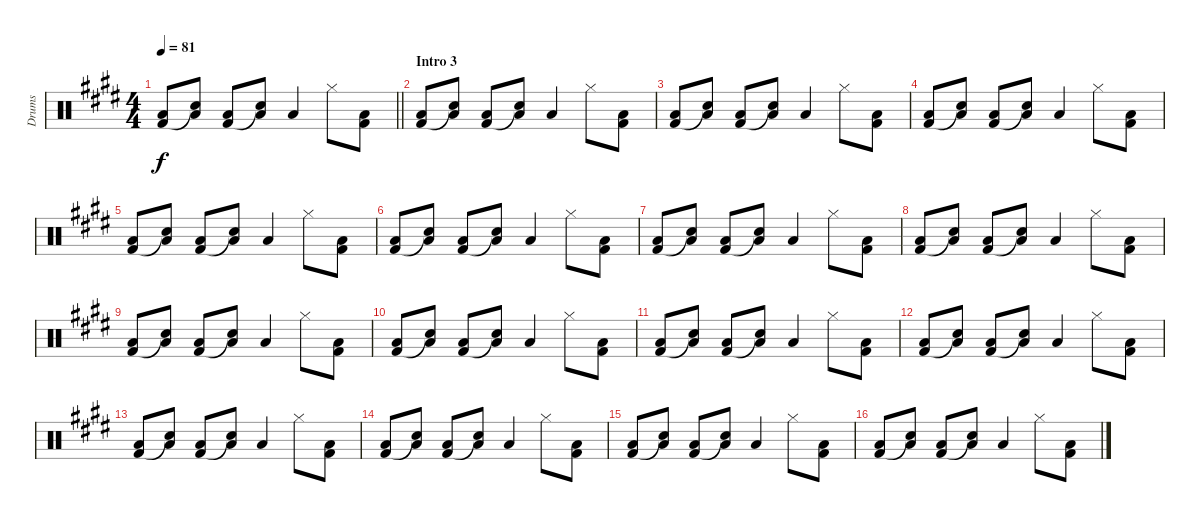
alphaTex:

\track ("Drums" "Drums") {instrument percussion}
\staff {score}
\articulation defaults
\ts (4 4)
\tempo 81
\clef neutral
\barLineRight lightlight
\ks c#minor
("Low Floor Tom (hit)" "Kick (hit) 2").8{dy f} ("Low Floor Tom (hit)" "Snare (hit)"{t}).8 ("Low Floor Tom (hit)" "Kick (hit) 2").8 ("Low Floor Tom (hit)" "Snare (hit)"{t}).8 "Low Tom (hit)".4 "Hi-Hat (closed)".8 ("Low Floor Tom (hit)" "Kick (hit) 2").8 |
\section ("" "Intro 3")
("Low Floor Tom (hit)" "Kick (hit) 2").8 ("Low Floor Tom (hit)" "Snare (hit)"{t}).8 ("Low Floor Tom (hit)" "Kick (hit) 2").8 ("Low Floor Tom (hit)" "Snare (hit)"{t}).8 "Low Tom (hit)".4 "Hi-Hat (closed)".8 ("Low Floor Tom (hit)" "Kick (hit) 2").8 |
("Low Floor Tom (hit)" "Kick (hit) 2").8 ("Low Floor Tom (hit)" "Snare (hit)"{t}).8 ("Low Floor Tom (hit)" "Kick (hit) 2").8 ("Low Floor Tom (hit)" "Snare (hit)"{t}).8 "Low Tom (hit)".4 "Hi-Hat (closed)".8 ("Low Floor Tom (hit)" "Kick (hit) 2").8 |
("Low Floor Tom (hit)" "Kick (hit) 2").8 ("Low Floor Tom (hit)" "Snare (hit)"{t}).8 ("Low Floor Tom (hit)" "Kick (hit) 2").8 ("Low Floor Tom (hit)" "Snare (hit)"{t}).8 "Low Tom (hit)".4 "Hi-Hat (closed)".8 ("Low Floor Tom (hit)" "Kick (hit) 2").8 |
("Low Floor Tom (hit)" "Kick (hit) 2").8 ("Low Floor Tom (hit)" "Snare (hit)"{t}).8 ("Low Floor Tom (hit)" "Kick (hit) 2").8 ("Low Floor Tom (hit)" "Snare (hit)"{t}).8 "Low Tom (hit)".4 "Hi-Hat (closed)".8 ("Low Floor Tom (hit)" "Kick (hit) 2").8 |
("Low Floor Tom (hit)" "Kick (hit) 2").8 ("Low Floor Tom (hit)" "Snare (hit)"{t}).8 ("Low Floor Tom (hit)" "Kick (hit) 2").8 ("Low Floor Tom (hit)" "Snare (hit)"{t}).8 "Low Tom (hit)".4 "Hi-Hat (closed)".8 ("Low Floor Tom (hit)" "Kick (hit) 2").8 |
("Low Floor Tom (hit)" "Kick (hit) 2").8 ("Low Floor Tom (hit)" "Snare (hit)"{t}).8 ("Low Floor Tom (hit)" "Kick (hit) 2").8 ("Low Floor Tom (hit)" "Snare (hit)"{t}).8 "Low Tom (hit)".4 "Hi-Hat (closed)".8 ("Low Floor Tom (hit)" "Kick (hit) 2").8 |
("Low Floor Tom (hit)" "Kick (hit) 2").8 ("Low Floor Tom (hit)" "Snare (hit)"{t}).8 ("Low Floor Tom (hit)" "Kick (hit) 2").8 ("Low Floor Tom (hit)" "Snare (hit)"{t}).8 "Low Tom (hit)".4 "Hi-Hat (closed)".8 ("Low Floor Tom (hit)" "Kick (hit) 2").8 |
("Low Floor Tom (hit)" "Kick (hit) 2").8 ("Low Floor Tom (hit)" "Snare (hit)"{t}).8 ("Low Floor Tom (hit)" "Kick (hit) 2").8 ("Low Floor Tom (hit)" "Snare (hit)"{t}).8 "Low Tom (hit)".4 "Hi-Hat (closed)".8 ("Low Floor Tom (hit)" "Kick (hit) 2").8 |
("Low Floor Tom (hit)" "Kick (hit) 2").8 ("Low Floor Tom (hit)" "Snare (hit)"{t}).8 ("Low Floor Tom (hit)" "Kick (hit) 2").8 ("Low Floor Tom (hit)" "Snare (hit)"{t}).8 "Low Tom (hit)".4 "Hi-Hat (closed)".8 ("Low Floor Tom (hit)" "Kick (hit) 2").8 |
("Low Floor Tom (hit)" "Kick (hit) 2").8 ("Low Floor Tom (hit)" "Snare (hit)"{t}).8 ("Low Floor Tom (hit)" "Kick (hit) 2").8 ("Low Floor Tom (hit)" "Snare (hit)"{t}).8 "Low Tom (hit)".4 "Hi-Hat (closed)".8 ("Low Floor Tom (hit)" "Kick (hit) 2").8 |
("Low Floor Tom (hit)" "Kick (hit) 2").8 ("Low Floor Tom (hit)" "Snare (hit)"{t}).8 ("Low Floor Tom (hit)" "Kick (hit) 2").8 ("Low Floor Tom (hit)" "Snare (hit)"{t}).8 "Low Tom (hit)".4 "Hi-Hat (closed)".8 ("Low Floor Tom (hit)" "Kick (hit) 2").8 |
("Low Floor Tom (hit)" "Kick (hit) 2").8 ("Low Floor Tom (hit)" "Snare (hit)"{t}).8 ("Low Floor Tom (hit)" "Kick (hit) 2").8 ("Low Floor Tom (hit)" "Snare (hit)"{t}).8 "Low Tom (hit)".4 "Hi-Hat (closed)".8 ("Low Floor Tom (hit)" "Kick (hit) 2").8 |
("Low Floor Tom (hit)" "Kick (hit) 2").8 ("Low Floor Tom (hit)" "Snare (hit)"{t}).8 ("Low Floor Tom (hit)" "Kick (hit) 2").8 ("Low Floor Tom (hit)" "Snare (hit)"{t}).8 "Low Tom (hit)".4 "Hi-Hat (closed)".8 ("Low Floor Tom (hit)" "Kick (hit) 2").8 |
("Low Floor Tom (hit)" "Kick (hit) 2").8 ("Low Floor Tom (hit)" "Snare (hit)"{t}).8 ("Low Floor Tom (hit)" "Kick (hit) 2").8 ("Low Floor Tom (hit)" "Snare (hit)"{t}).8 "Low Tom (hit)".4 "Hi-Hat (closed)".8 ("Low Floor Tom (hit)" "Kick (hit) 2").8 |
("Low Floor Tom (hit)" "Kick (hit) 2").8 ("Low Floor Tom (hit)" "Snare (hit)"{t}).8 ("Low Floor Tom (hit)" "Kick (hit) 2").8 ("Low Floor Tom (hit)" "Snare (hit)"{t}).8 "Low Tom (hit)".4 "Hi-Hat (closed)".8 ("Low Floor Tom (hit)" "Kick (hit) 2").8
